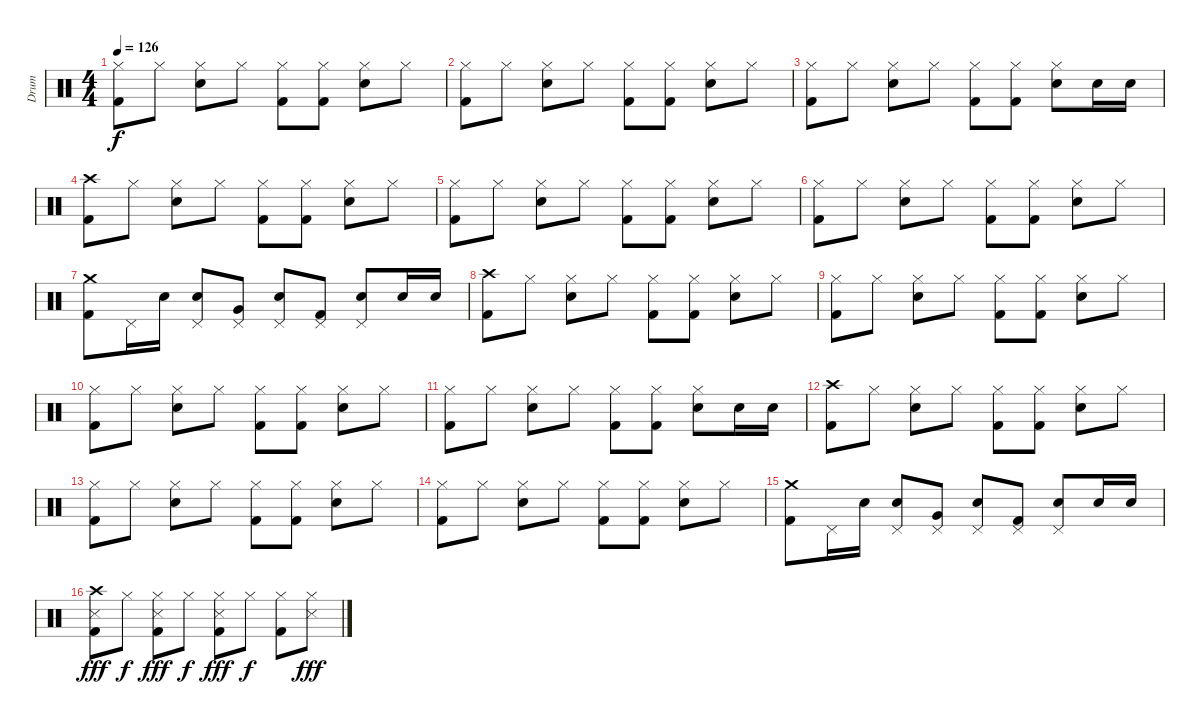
\track ("Drum" "Drum") {instrument percussion}
\staff {score}
\articulation defaults
\ts (4 4)
\tempo 126
\clef neutral
\ks c
("Hi-Hat (closed)" "Kick (hit) 2").8{dy f} "Hi-Hat (closed)".8 ("Electric Snare (hit)" "Hi-Hat (closed)").8 "Hi-Hat (closed)".8 ("Hi-Hat (closed)" "Kick (hit) 2").8 ("Hi-Hat (closed)" "Kick (hit) 2").8 ("Electric Snare (hit)" "Hi-Hat (closed)").8 "Hi-Hat (closed)".8 |
("Hi-Hat (closed)" "Kick (hit) 2").8 "Hi-Hat (closed)".8 ("Electric Snare (hit)" "Hi-Hat (closed)").8 "Hi-Hat (closed)".8 ("Hi-Hat (closed)" "Kick (hit) 2").8 ("Hi-Hat (closed)" "Kick (hit) 2").8 ("Electric Snare (hit)" "Hi-Hat (closed)").8 "Hi-Hat (closed)".8 |
("Hi-Hat (closed)" "Kick (hit) 2").8 "Hi-Hat (closed)".8 ("Electric Snare (hit)" "Hi-Hat (closed)").8 "Hi-Hat (closed)".8 ("Hi-Hat (closed)" "Kick (hit) 2").8 ("Hi-Hat (closed)" "Kick (hit) 2").8 ("Electric Snare (hit)" "Hi-Hat (closed)").8 "Electric Snare (hit)".16 "Electric Snare (hit)".16 |
("Crash high (hit)" "Kick (hit) 2").8 "Hi-Hat (closed)".8 ("Electric Snare (hit)" "Hi-Hat (closed)").8 "Hi-Hat (closed)".8 ("Hi-Hat (closed)" "Kick (hit) 2").8 ("Hi-Hat (closed)" "Kick (hit) 2").8 ("Electric Snare (hit)" "Hi-Hat (closed)").8 "Hi-Hat (closed)".8 |
("Hi-Hat (closed)" "Kick (hit) 2").8 "Hi-Hat (closed)".8 ("Electric Snare (hit)" "Hi-Hat (closed)").8 "Hi-Hat (closed)".8 ("Hi-Hat (closed)" "Kick (hit) 2").8 ("Hi-Hat (closed)" "Kick (hit) 2").8 ("Electric Snare (hit)" "Hi-Hat (closed)").8 "Hi-Hat (closed)".8 |
("Hi-Hat (closed)" "Kick (hit) 2").8 "Hi-Hat (closed)".8 ("Electric Snare (hit)" "Hi-Hat (closed)").8 "Hi-Hat (closed)".8 ("Hi-Hat (closed)" "Kick (hit) 2").8 ("Hi-Hat (closed)" "Kick (hit) 2").8 ("Electric Snare (hit)" "Hi-Hat (closed)").8 "Hi-Hat (closed)".8 |
("Crash medium (hit)" "Kick (hit) 2").8 "Pedal Hi-Hat (hit)".16 "Electric Snare (hit)".16 ("Electric Snare (hit)" "Pedal Hi-Hat (hit)").8 ("Very Low Tom (hit)" "Pedal Hi-Hat (hit)").8 ("Electric Snare (hit)" "Pedal Hi-Hat (hit)").8 ("Pedal Hi-Hat (hit)" "Kick (hit) 2").8 ("Electric Snare (hit)" "Pedal Hi-Hat (hit)").8 "Electric Snare (hit)".16 "Electric Snare (hit)".16 |
("Crash high (hit)" "Kick (hit) 2").8 "Hi-Hat (closed)".8 ("Electric Snare (hit)" "Hi-Hat (closed)").8 "Hi-Hat (closed)".8 ("Hi-Hat (closed)" "Kick (hit) 2").8 ("Hi-Hat (closed)" "Kick (hit) 2").8 ("Electric Snare (hit)" "Hi-Hat (closed)").8 "Hi-Hat (closed)".8 |
("Hi-Hat (closed)" "Kick (hit) 2").8 "Hi-Hat (closed)".8 ("Electric Snare (hit)" "Hi-Hat (closed)").8 "Hi-Hat (closed)".8 ("Hi-Hat (closed)" "Kick (hit) 2").8 ("Hi-Hat (closed)" "Kick (hit) 2").8 ("Electric Snare (hit)" "Hi-Hat (closed)").8 "Hi-Hat (closed)".8 |
("Hi-Hat (closed)" "Kick (hit) 2").8 "Hi-Hat (closed)".8 ("Electric Snare (hit)" "Hi-Hat (closed)").8 "Hi-Hat (closed)".8 ("Hi-Hat (closed)" "Kick (hit) 2").8 ("Hi-Hat (closed)" "Kick (hit) 2").8 ("Electric Snare (hit)" "Hi-Hat (closed)").8 "Hi-Hat (closed)".8 |
("Hi-Hat (closed)" "Kick (hit) 2").8 "Hi-Hat (closed)".8 ("Electric Snare (hit)" "Hi-Hat (closed)").8 "Hi-Hat (closed)".8 ("Hi-Hat (closed)" "Kick (hit) 2").8 ("Hi-Hat (closed)" "Kick (hit) 2").8 ("Electric Snare (hit)" "Hi-Hat (closed)").8 "Electric Snare (hit)".16 "Electric Snare (hit)".16 |
("Crash high (hit)" "Kick (hit) 2").8 "Hi-Hat (closed)".8 ("Electric Snare (hit)" "Hi-Hat (closed)").8 "Hi-Hat (closed)".8 ("Hi-Hat (closed)" "Kick (hit) 2").8 ("Hi-Hat (closed)" "Kick (hit) 2").8 ("Electric Snare (hit)" "Hi-Hat (closed)").8 "Hi-Hat (closed)".8 |
("Hi-Hat (closed)" "Kick (hit) 2").8 "Hi-Hat (closed)".8 ("Electric Snare (hit)" "Hi-Hat (closed)").8 "Hi-Hat (closed)".8 ("Hi-Hat (closed)" "Kick (hit) 2").8 ("Hi-Hat (closed)" "Kick (hit) 2").8 ("Electric Snare (hit)" "Hi-Hat (closed)").8 "Hi-Hat (closed)".8 |
("Hi-Hat (closed)" "Kick (hit) 2").8 "Hi-Hat (closed)".8 ("Electric Snare (hit)" "Hi-Hat (closed)").8 "Hi-Hat (closed)".8 ("Hi-Hat (closed)" "Kick (hit) 2").8 ("Hi-Hat (closed)" "Kick (hit) 2").8 ("Electric Snare (hit)" "Hi-Hat (closed)").8 "Hi-Hat (closed)".8 |
("Crash medium (hit)" "Kick (hit) 2").8 "Pedal Hi-Hat (hit)".16 "Electric Snare (hit)".16 ("Electric Snare (hit)" "Pedal Hi-Hat (hit)").8 ("Very Low Tom (hit)" "Pedal Hi-Hat (hit)").8 ("Electric Snare (hit)" "Pedal Hi-Hat (hit)").8 ("Pedal Hi-Hat (hit)" "Kick (hit) 2").8 ("Electric Snare (hit)" "Pedal Hi-Hat (hit)").8 "Electric Snare (hit)".16 "Electric Snare (hit)".16 |
("Crash high (hit)" "Snare (side stick) 3" "Kick (hit) 2").8{dy fff} "Hi-Hat (closed)".8{dy f} ("Snare (side stick) 3" "Hi-Hat (closed)" "Kick (hit) 2").8{dy fff} "Hi-Hat (closed)".8{dy f} ("Snare (side stick) 3" "Hi-Hat (closed)" "Kick (hit) 2").8{dy fff} "Hi-Hat (closed)".8{dy f} ("Hi-Hat (closed)" "Kick (hit) 2").8 ("Snare (side stick) 3" "Hi-Hat (closed)").8{dy fff}
